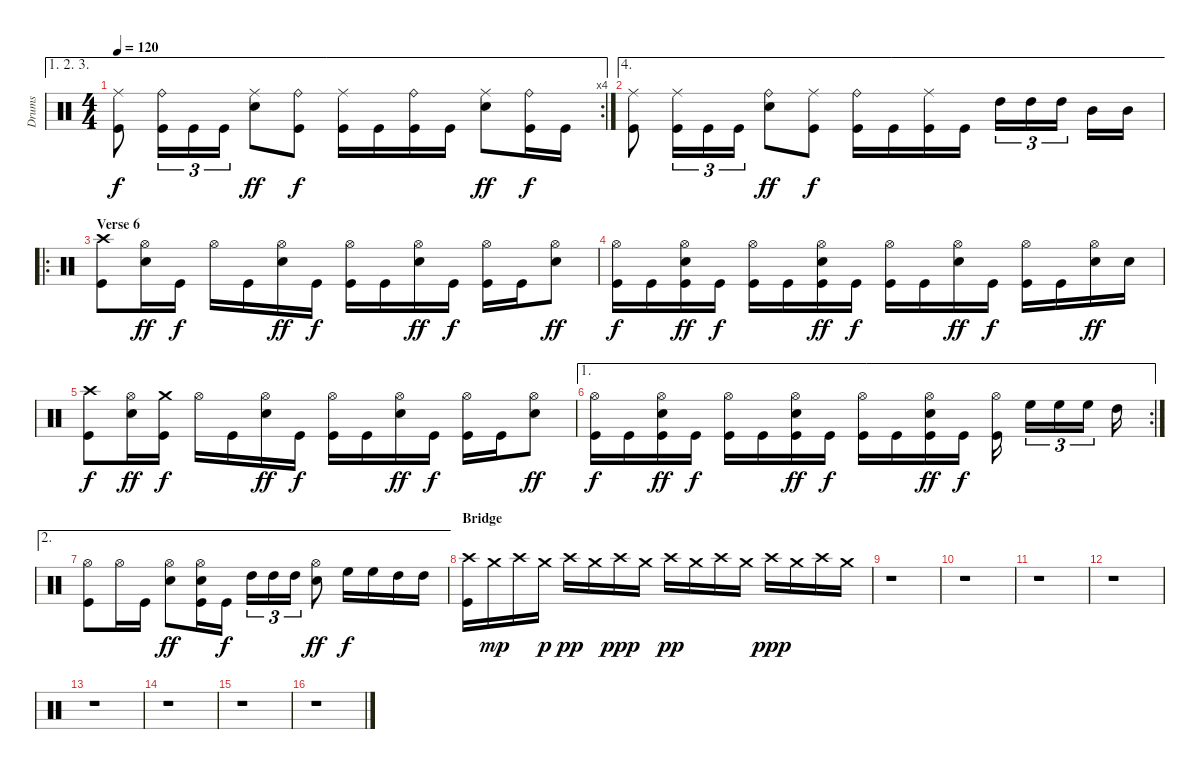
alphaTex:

\track ("Drums" "Drums") {instrument percussion}
\staff {score}
\articulation defaults
\ae (1 2 3)
\rc 4
\ts (4 4)
\tempo 120
\clef neutral
\ks c
("Ride (middle)" "Kick (hit)").8{dy f} ("Ride (bell)" "Kick (hit)").16{tu (3 2)} "Kick (hit)".16{tu (3 2)} "Kick (hit)".16{tu (3 2)} ("Ride (middle)" "Electric Snare (hit)").8{dy ff} ("Ride (bell)" "Kick (hit)").8{dy f} ("Ride (middle)" "Kick (hit)").16 "Kick (hit)".16 ("Ride (bell)" "Kick (hit)").16 "Kick (hit)".16 ("Ride (middle)" "Electric Snare (hit)").8{dy ff} ("Ride (bell)" "Kick (hit)").16{dy f} "Kick (hit)".16 |
\ae 4
("Ride (middle)" "Kick (hit)").8 ("Ride (middle)" "Kick (hit)").16{tu (3 2)} "Kick (hit)".16{tu (3 2)} "Kick (hit)".16{tu (3 2)} ("Ride (bell)" "Electric Snare (hit)").8{dy ff} ("Ride (middle)" "Kick (hit)").8{dy f} ("Ride (bell)" "Kick (hit)").16 "Kick (hit)".16 ("Ride (middle)" "Kick (hit)").16 "Kick (hit)".16 "High Tom (hit)".16{tu (3 2)} "High Tom (hit)".16{tu (3 2)} "High Tom (hit)".16{tu (3 2)} "Mid Tom (hit)".16 "Mid Tom (hit)".16 |
\ro
\section ("" "Verse 6")
("Crash high (hit)" "Kick (hit)").8 ("Hi-Hat (open)" "Electric Snare (hit)").16{dy ff} "Kick (hit)".16{dy f} "Hi-Hat (open)".16 "Kick (hit)".16 ("Hi-Hat (open)" "Electric Snare (hit)").16{dy ff} "Kick (hit)".16{dy f} ("Hi-Hat (open)" "Kick (hit)").16 "Kick (hit)".16 ("Hi-Hat (open)" "Electric Snare (hit)").16{dy ff} "Kick (hit)".16{dy f} ("Hi-Hat (open)" "Kick (hit)").16 "Kick (hit)".16 ("Hi-Hat (open)" "Electric Snare (hit)").8{dy ff} |
("Hi-Hat (open)" "Kick (hit)").16{dy f} "Kick (hit)".16 ("Hi-Hat (open)" "Electric Snare (hit)" "Kick (hit)").16{dy ff} "Kick (hit)".16{dy f} ("Hi-Hat (open)" "Kick (hit)").16 "Kick (hit)".16 ("Hi-Hat (open)" "Electric Snare (hit)" "Kick (hit)").16{dy ff} "Kick (hit)".16{dy f} ("Hi-Hat (open)" "Kick (hit)").16 "Kick (hit)".16 ("Hi-Hat (open)" "Electric Snare (hit)").16{dy ff} "Kick (hit)".16{dy f} ("Hi-Hat (open)" "Kick (hit)").16 "Kick (hit)".16 ("Hi-Hat (open)" "Electric Snare (hit)").16{dy ff} "Electric Snare (hit)".16 |
("Crash high (hit)" "Kick (hit)").8{dy f} ("Hi-Hat (open)" "Electric Snare (hit)").16{dy ff} ("Crash medium (hit)" "Kick (hit)").16{dy f} "Hi-Hat (open)".16 "Kick (hit)".16 ("Hi-Hat (open)" "Electric Snare (hit)").16{dy ff} "Kick (hit)".16{dy f} ("Hi-Hat (open)" "Kick (hit)").16 "Kick (hit)".16 ("Hi-Hat (open)" "Electric Snare (hit)").16{dy ff} "Kick (hit)".16{dy f} ("Hi-Hat (open)" "Kick (hit)").16 "Kick (hit)".16 ("Hi-Hat (open)" "Electric Snare (hit)").8{dy ff} |
\ae 1
\rc 2
("Hi-Hat (open)" "Kick (hit)").16{dy f} "Kick (hit)".16 ("Hi-Hat (open)" "Electric Snare (hit)" "Kick (hit)").16{dy ff} "Kick (hit)".16{dy f} ("Hi-Hat (open)" "Kick (hit)").16 "Kick (hit)".16 ("Hi-Hat (open)" "Electric Snare (hit)" "Kick (hit)").16{dy ff} "Kick (hit)".16{dy f} ("Hi-Hat (open)" "Kick (hit)").16 "Kick (hit)".16 ("Hi-Hat (open)" "Electric Snare (hit)" "Kick (hit)").16{dy ff} "Kick (hit)".16{dy f} ("Hi-Hat (open)" "Kick (hit)").16 "High Floor Tom (hit)".16{tu (3 2)} "High Floor Tom (hit)".16{tu (3 2)} "High Floor Tom (hit)".16{tu (3 2)} "High Tom (hit)".16 |
\ae 2
("Hi-Hat (open)" "Kick (hit)").8 "Hi-Hat (open)".16 "Kick (hit)".16 ("Hi-Hat (open)" "Electric Snare (hit)").8{dy ff} ("Hi-Hat (open)" "Electric Snare (hit)" "Kick (hit)").16 "Kick (hit)".16{dy f} "High Tom (hit)".16{tu (3 2)} "High Tom (hit)".16{tu (3 2)} "High Tom (hit)".16{tu (3 2)} ("Hi-Hat (open)" "Electric Snare (hit)").8{dy ff} "High Floor Tom (hit)".16{dy f} "High Floor Tom (hit)".16 "High Tom (hit)".16 "High Tom (hit)".16 |
\section ("" "Bridge")
("Crash high (hit)" "Kick (hit)").16 "Crash medium (hit)".16{dy mp} "Crash high (hit)".16 "Crash medium (hit)".16{dy p} "Crash high (hit)".16{dy pp} "Crash medium (hit)".16 "Crash high (hit)".16{dy ppp} "Crash medium (hit)".16 "Crash high (hit)".16{dy pp} "Crash medium (hit)".16 "Crash high (hit)".16 "Crash medium (hit)".16 "Crash high (hit)".16{dy ppp} "Crash medium (hit)".16 "Crash high (hit)".16 "Crash medium (hit)".16 |
r.1 |
r.1 |
r.1 |
r.1 |
r.1 |
r.1 |
r.1 |
r.1
